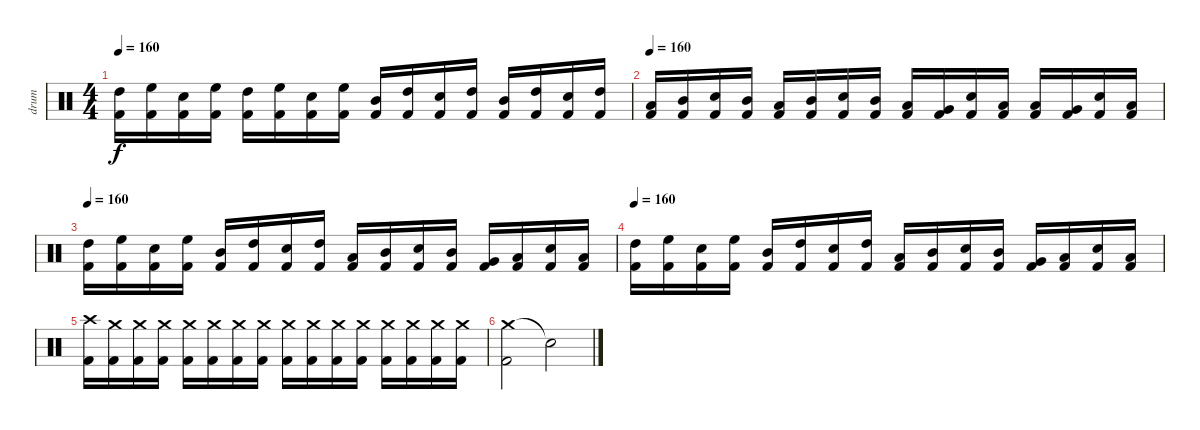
\track ("drum" "drum") {instrument percussion}
\staff {score}
\articulation defaults
\ts (4 4)
\tempo 160
\clef neutral
\ks c
("High Tom (hit)" "Kick (hit) 2").16{dy f} ("High Floor Tom (hit)" "Kick (hit) 2").16 ("Snare (hit) 2" "Kick (hit) 2").16 ("High Floor Tom (hit)" "Kick (hit) 2").16 ("High Tom (hit)" "Kick (hit) 2").16 ("High Floor Tom (hit)" "Kick (hit) 2").16 ("Snare (hit) 2" "Kick (hit) 2").16 ("High Floor Tom (hit)" "Kick (hit) 2").16 ("Mid Tom (hit)" "Kick (hit) 2").16 ("High Tom (hit)" "Kick (hit) 2").16 ("Snare (hit) 2" "Kick (hit) 2").16 ("High Tom (hit)" "Kick (hit) 2").16 ("Mid Tom (hit)" "Kick (hit) 2").16 ("High Tom (hit)" "Kick (hit) 2").16 ("Snare (hit) 2" "Kick (hit) 2").16 ("High Tom (hit)" "Kick (hit) 2").16 |
\tempo 160
("Low Tom (hit)" "Kick (hit) 2").16 ("Mid Tom (hit)" "Kick (hit) 2").16 ("Snare (hit) 2" "Kick (hit) 2").16 ("Mid Tom (hit)" "Kick (hit) 2").16 ("Low Tom (hit)" "Kick (hit) 2").16 ("Mid Tom (hit)" "Kick (hit) 2").16 ("Snare (hit) 2" "Kick (hit) 2").16 ("Mid Tom (hit)" "Kick (hit) 2").16 ("Low Tom (hit)" "Kick (hit) 2").16 ("Very Low Tom (hit)" "Kick (hit) 2").16 ("Snare (hit) 2" "Kick (hit) 2").16 ("Low Tom (hit)" "Kick (hit) 2").16 ("Low Tom (hit)" "Kick (hit) 2").16 ("Very Low Tom (hit)" "Kick (hit) 2").16 ("Snare (hit) 2" "Kick (hit) 2").16 ("Low Tom (hit)" "Kick (hit) 2").16 |
\tempo 160
("High Tom (hit)" "Kick (hit) 2").16 ("High Floor Tom (hit)" "Kick (hit) 2").16 ("Snare (hit) 2" "Kick (hit) 2").16 ("High Floor Tom (hit)" "Kick (hit) 2").16 ("Mid Tom (hit)" "Kick (hit) 2").16 ("High Tom (hit)" "Kick (hit) 2").16 ("Snare (hit) 2" "Kick (hit) 2").16 ("High Tom (hit)" "Kick (hit) 2").16 ("Low Tom (hit)" "Kick (hit) 2").16 ("Mid Tom (hit)" "Kick (hit) 2").16 ("Snare (hit) 2" "Kick (hit) 2").16 ("Mid Tom (hit)" "Kick (hit) 2").16 ("Very Low Tom (hit)" "Kick (hit) 2").16 ("Low Tom (hit)" "Kick (hit) 2").16 ("Snare (hit) 2" "Kick (hit) 2").16 ("Low Tom (hit)" "Kick (hit) 2").16 |
\tempo 160
("High Tom (hit)" "Kick (hit) 2").16 ("High Floor Tom (hit)" "Kick (hit) 2").16 ("Snare (hit) 2" "Kick (hit) 2").16 ("High Floor Tom (hit)" "Kick (hit) 2").16 ("Mid Tom (hit)" "Kick (hit) 2").16 ("High Tom (hit)" "Kick (hit) 2").16 ("Snare (hit) 2" "Kick (hit) 2").16 ("High Tom (hit)" "Kick (hit) 2").16 ("Low Tom (hit)" "Kick (hit) 2").16 ("Mid Tom (hit)" "Kick (hit) 2").16 ("Snare (hit) 2" "Kick (hit) 2").16 ("Mid Tom (hit)" "Kick (hit) 2").16 ("Very Low Tom (hit)" "Kick (hit) 2").16 ("Low Tom (hit)" "Kick (hit) 2").16 ("Snare (hit) 2" "Kick (hit) 2").16 ("Low Tom (hit)" "Kick (hit) 2").16 |
("Crash high (hit)" "Kick (hit) 2").16 ("Crash medium (hit)" "Kick (hit) 2").16 ("Crash medium (hit)" "Kick (hit) 2").16 ("Crash medium (hit)" "Kick (hit) 2").16 ("Crash medium (hit)" "Kick (hit) 2").16 ("Crash medium (hit)" "Kick (hit) 2").16 ("Crash medium (hit)" "Kick (hit) 2").16 ("Crash medium (hit)" "Kick (hit) 2").16 ("Crash medium (hit)" "Kick (hit) 2").16 ("Crash medium (hit)" "Kick (hit) 2").16 ("Crash medium (hit)" "Kick (hit) 2").16 ("Crash medium (hit)" "Kick (hit) 2").16 ("Crash medium (hit)" "Kick (hit) 2").16 ("Crash medium (hit)" "Kick (hit) 2").16 ("Crash medium (hit)" "Kick (hit) 2").16 ("Crash medium (hit)" "Kick (hit) 2").16 |
("Crash medium (hit)" "Kick (hit) 2").2 "Snare (hit)"{t}.2
